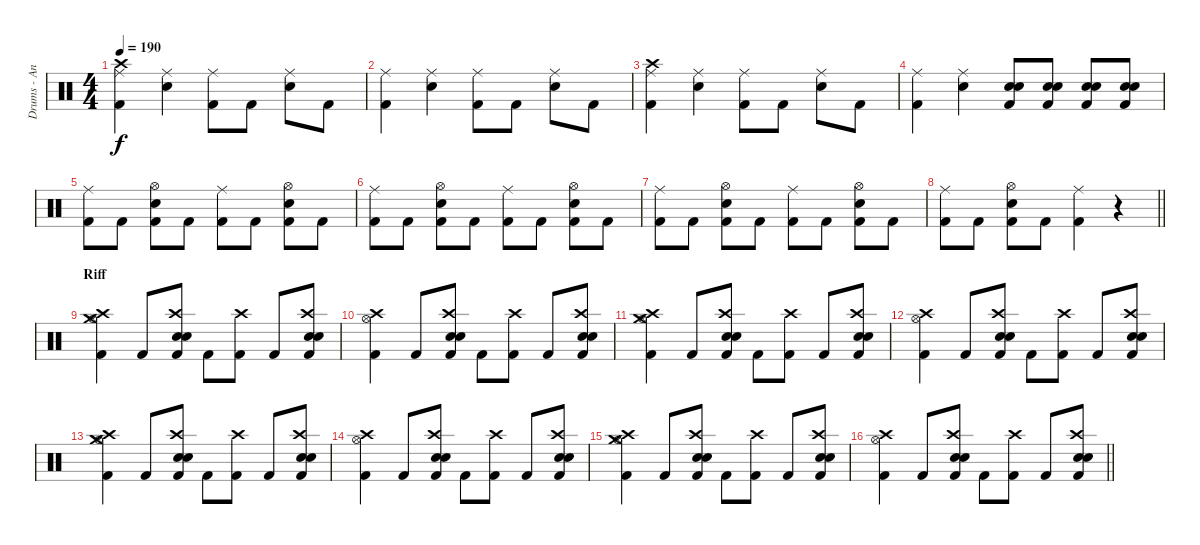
\track ("Drums - Anders Johansson" "Drums - An") {instrument percussion}
\staff {score}
\articulation defaults
\ts (4 4)
\tempo 190
\clef neutral
\ks c
("Ride (middle)" "Kick (hit) 2" "Crash high (hit)").4{dy f} ("Ride (middle)" "Snare (hit) 2").4 ("Ride (middle)" "Kick (hit) 2").8 "Kick (hit) 2".8 ("Ride (middle)" "Snare (hit) 2").8 "Kick (hit) 2".8 |
("Ride (middle)" "Kick (hit) 2").4 ("Ride (middle)" "Snare (hit) 2").4 ("Ride (middle)" "Kick (hit) 2").8 "Kick (hit) 2".8 ("Ride (middle)" "Snare (hit) 2").8 "Kick (hit) 2".8 |
("Ride (middle)" "Kick (hit) 2" "Crash high (hit)").4 ("Ride (middle)" "Snare (hit) 2").4 ("Ride (middle)" "Kick (hit) 2").8 "Kick (hit) 2".8 ("Ride (middle)" "Snare (hit) 2").8 "Kick (hit) 2".8 |
("Ride (middle)" "Kick (hit) 2").4 ("Ride (middle)" "Snare (hit) 2").4 ("Electric Snare (hit)" "Snare (hit) 2" "Kick (hit) 2").8 ("Electric Snare (hit)" "Snare (hit) 2" "Kick (hit) 2").8 ("Electric Snare (hit)" "Snare (hit) 2" "Kick (hit) 2").8 ("Electric Snare (hit)" "Snare (hit) 2" "Kick (hit) 2").8 |
("Ride (middle)" "Kick (hit) 2").8 "Kick (hit) 2".8 ("Hi-Hat (open)" "Snare (hit) 2" "Kick (hit) 2").8 "Kick (hit) 2".8 ("Ride (middle)" "Kick (hit) 2").8 "Kick (hit) 2".8 ("Hi-Hat (open)" "Snare (hit) 2" "Kick (hit) 2").8 "Kick (hit) 2".8 |
("Ride (middle)" "Kick (hit) 2").8 "Kick (hit) 2".8 ("Hi-Hat (open)" "Snare (hit) 2" "Kick (hit) 2").8 "Kick (hit) 2".8 ("Ride (middle)" "Kick (hit) 2").8 "Kick (hit) 2".8 ("Hi-Hat (open)" "Snare (hit) 2" "Kick (hit) 2").8 "Kick (hit) 2".8 |
("Ride (middle)" "Kick (hit) 2").8 "Kick (hit) 2".8 ("Hi-Hat (open)" "Snare (hit) 2" "Kick (hit) 2").8 "Kick (hit) 2".8 ("Ride (middle)" "Kick (hit) 2").8 "Kick (hit) 2".8 ("Hi-Hat (open)" "Snare (hit) 2" "Kick (hit) 2").8 "Kick (hit) 2".8 |
\barLineRight lightlight
("Ride (middle)" "Kick (hit) 2").8 "Kick (hit) 2".8 ("Hi-Hat (open)" "Snare (hit) 2" "Kick (hit) 2").8 "Kick (hit) 2".8 ("Ride (middle)" "Kick (hit) 2").4 r.4 |
\section ("" "Riff")
("Hi-Hat (open)" "Kick (hit) 2" "Crash medium (hit)" "Crash high (hit)").4 "Kick (hit) 2".8 ("Electric Snare (hit)" "Snare (hit) 2" "Kick (hit) 2" "Crash high (hit)").8 "Kick (hit) 2".8 ("Kick (hit) 2" "Crash high (hit)").8 "Kick (hit) 2".8 ("Electric Snare (hit)" "Snare (hit) 2" "Kick (hit) 2" "Crash high (hit)").8 |
("Hi-Hat (open)" "Kick (hit) 2" "Crash high (hit)").4 "Kick (hit) 2".8 ("Electric Snare (hit)" "Snare (hit) 2" "Kick (hit) 2" "Crash high (hit)").8 "Kick (hit) 2".8 ("Kick (hit) 2" "Crash high (hit)").8 "Kick (hit) 2".8 ("Electric Snare (hit)" "Snare (hit) 2" "Kick (hit) 2" "Crash high (hit)").8 |
("Hi-Hat (open)" "Kick (hit) 2" "Crash medium (hit)" "Crash high (hit)").4 "Kick (hit) 2".8 ("Electric Snare (hit)" "Snare (hit) 2" "Kick (hit) 2" "Crash high (hit)").8 "Kick (hit) 2".8 ("Kick (hit) 2" "Crash high (hit)").8 "Kick (hit) 2".8 ("Electric Snare (hit)" "Snare (hit) 2" "Kick (hit) 2" "Crash high (hit)").8 |
("Hi-Hat (open)" "Kick (hit) 2" "Crash high (hit)").4 "Kick (hit) 2".8 ("Electric Snare (hit)" "Snare (hit) 2" "Kick (hit) 2" "Crash high (hit)").8 "Kick (hit) 2".8 ("Kick (hit) 2" "Crash high (hit)").8 "Kick (hit) 2".8 ("Electric Snare (hit)" "Snare (hit) 2" "Kick (hit) 2" "Crash high (hit)").8 |
("Hi-Hat (open)" "Kick (hit) 2" "Crash medium (hit)" "Crash high (hit)").4 "Kick (hit) 2".8 ("Electric Snare (hit)" "Snare (hit) 2" "Kick (hit) 2" "Crash high (hit)").8 "Kick (hit) 2".8 ("Kick (hit) 2" "Crash high (hit)").8 "Kick (hit) 2".8 ("Electric Snare (hit)" "Snare (hit) 2" "Kick (hit) 2" "Crash high (hit)").8 |
("Hi-Hat (open)" "Kick (hit) 2" "Crash high (hit)").4 "Kick (hit) 2".8 ("Electric Snare (hit)" "Snare (hit) 2" "Kick (hit) 2" "Crash high (hit)").8 "Kick (hit) 2".8 ("Kick (hit) 2" "Crash high (hit)").8 "Kick (hit) 2".8 ("Electric Snare (hit)" "Snare (hit) 2" "Kick (hit) 2" "Crash high (hit)").8 |
("Hi-Hat (open)" "Kick (hit) 2" "Crash medium (hit)" "Crash high (hit)").4 "Kick (hit) 2".8 ("Electric Snare (hit)" "Snare (hit) 2" "Kick (hit) 2" "Crash high (hit)").8 "Kick (hit) 2".8 ("Kick (hit) 2" "Crash high (hit)").8 "Kick (hit) 2".8 ("Electric Snare (hit)" "Snare (hit) 2" "Kick (hit) 2" "Crash high (hit)").8 |
\barLineRight lightlight
("Hi-Hat (open)" "Kick (hit) 2" "Crash high (hit)").4 "Kick (hit) 2".8 ("Electric Snare (hit)" "Snare (hit) 2" "Kick (hit) 2" "Crash high (hit)").8 "Kick (hit) 2".8 ("Kick (hit) 2" "Crash high (hit)").8 "Kick (hit) 2".8 ("Electric Snare (hit)" "Snare (hit) 2" "Kick (hit) 2" "Crash high (hit)").8
